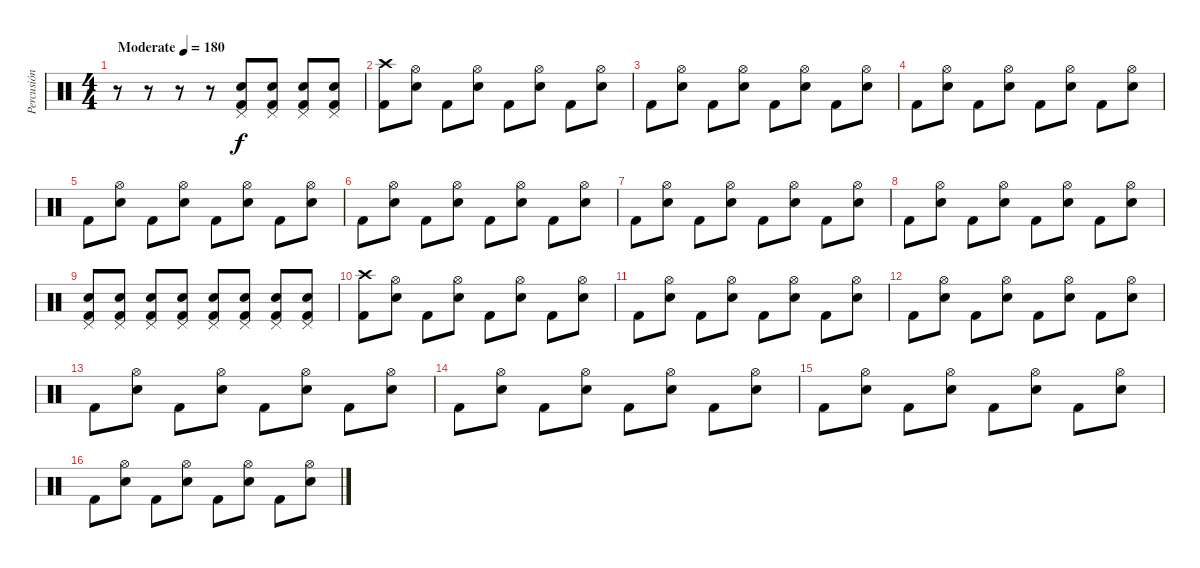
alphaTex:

\track ("Percusión" "Percusión") {instrument percussion}
\staff {score}
\articulation defaults
\ts (4 4)
\tempo (180 "Moderate")
\clef neutral
\ks c
r.8{dy f} r.8 r.8 r.8 ("Pedal Hi-Hat (hit)" "Electric Snare (hit)" "Kick (hit) 2").8 ("Pedal Hi-Hat (hit)" "Electric Snare (hit)" "Kick (hit) 2").8 ("Pedal Hi-Hat (hit)" "Electric Snare (hit)" "Kick (hit) 2").8 ("Pedal Hi-Hat (hit)" "Electric Snare (hit)" "Kick (hit) 2").8 |
("Crash high (hit)" "Kick (hit) 2").8 ("Hi-Hat (open)" "Electric Snare (hit)").8 "Kick (hit) 2".8 ("Hi-Hat (open)" "Electric Snare (hit)").8 "Kick (hit) 2".8 ("Hi-Hat (open)" "Electric Snare (hit)").8 "Kick (hit) 2".8 ("Hi-Hat (open)" "Electric Snare (hit)").8 |
"Kick (hit) 2".8 ("Hi-Hat (open)" "Electric Snare (hit)").8 "Kick (hit) 2".8 ("Hi-Hat (open)" "Electric Snare (hit)").8 "Kick (hit) 2".8 ("Hi-Hat (open)" "Electric Snare (hit)").8 "Kick (hit) 2".8 ("Hi-Hat (open)" "Electric Snare (hit)").8 |
"Kick (hit) 2".8 ("Hi-Hat (open)" "Electric Snare (hit)").8 "Kick (hit) 2".8 ("Hi-Hat (open)" "Electric Snare (hit)").8 "Kick (hit) 2".8 ("Hi-Hat (open)" "Electric Snare (hit)").8 "Kick (hit) 2".8 ("Hi-Hat (open)" "Electric Snare (hit)").8 |
"Kick (hit) 2".8 ("Hi-Hat (open)" "Electric Snare (hit)").8 "Kick (hit) 2".8 ("Hi-Hat (open)" "Electric Snare (hit)").8 "Kick (hit) 2".8 ("Hi-Hat (open)" "Electric Snare (hit)").8 "Kick (hit) 2".8 ("Hi-Hat (open)" "Electric Snare (hit)").8 |
"Kick (hit) 2".8 ("Hi-Hat (open)" "Electric Snare (hit)").8 "Kick (hit) 2".8 ("Hi-Hat (open)" "Electric Snare (hit)").8 "Kick (hit) 2".8 ("Hi-Hat (open)" "Electric Snare (hit)").8 "Kick (hit) 2".8 ("Hi-Hat (open)" "Electric Snare (hit)").8 |
"Kick (hit) 2".8 ("Hi-Hat (open)" "Electric Snare (hit)").8 "Kick (hit) 2".8 ("Hi-Hat (open)" "Electric Snare (hit)").8 "Kick (hit) 2".8 ("Hi-Hat (open)" "Electric Snare (hit)").8 "Kick (hit) 2".8 ("Hi-Hat (open)" "Electric Snare (hit)").8 |
"Kick (hit) 2".8 ("Hi-Hat (open)" "Electric Snare (hit)").8 "Kick (hit) 2".8 ("Hi-Hat (open)" "Electric Snare (hit)").8 "Kick (hit) 2".8 ("Hi-Hat (open)" "Electric Snare (hit)").8 "Kick (hit) 2".8 ("Hi-Hat (open)" "Electric Snare (hit)").8 |
("Pedal Hi-Hat (hit)" "Electric Snare (hit)" "Kick (hit) 2").8 ("Pedal Hi-Hat (hit)" "Electric Snare (hit)" "Kick (hit) 2").8 ("Pedal Hi-Hat (hit)" "Electric Snare (hit)" "Kick (hit) 2").8 ("Pedal Hi-Hat (hit)" "Electric Snare (hit)" "Kick (hit) 2").8 ("Pedal Hi-Hat (hit)" "Electric Snare (hit)" "Kick (hit) 2").8 ("Pedal Hi-Hat (hit)" "Electric Snare (hit)" "Kick (hit) 2").8 ("Pedal Hi-Hat (hit)" "Electric Snare (hit)" "Kick (hit) 2").8 ("Pedal Hi-Hat (hit)" "Electric Snare (hit)" "Kick (hit) 2").8 |
("Crash high (hit)" "Kick (hit) 2").8 ("Hi-Hat (open)" "Electric Snare (hit)").8 "Kick (hit) 2".8 ("Hi-Hat (open)" "Electric Snare (hit)").8 "Kick (hit) 2".8 ("Hi-Hat (open)" "Electric Snare (hit)").8 "Kick (hit) 2".8 ("Hi-Hat (open)" "Electric Snare (hit)").8 |
"Kick (hit) 2".8 ("Hi-Hat (open)" "Electric Snare (hit)").8 "Kick (hit) 2".8 ("Hi-Hat (open)" "Electric Snare (hit)").8 "Kick (hit) 2".8 ("Hi-Hat (open)" "Electric Snare (hit)").8 "Kick (hit) 2".8 ("Hi-Hat (open)" "Electric Snare (hit)").8 |
"Kick (hit) 2".8 ("Hi-Hat (open)" "Electric Snare (hit)").8 "Kick (hit) 2".8 ("Hi-Hat (open)" "Electric Snare (hit)").8 "Kick (hit) 2".8 ("Hi-Hat (open)" "Electric Snare (hit)").8 "Kick (hit) 2".8 ("Hi-Hat (open)" "Electric Snare (hit)").8 |
"Kick (hit) 2".8 ("Hi-Hat (open)" "Electric Snare (hit)").8 "Kick (hit) 2".8 ("Hi-Hat (open)" "Electric Snare (hit)").8 "Kick (hit) 2".8 ("Hi-Hat (open)" "Electric Snare (hit)").8 "Kick (hit) 2".8 ("Hi-Hat (open)" "Electric Snare (hit)").8 |
"Kick (hit) 2".8 ("Hi-Hat (open)" "Electric Snare (hit)").8 "Kick (hit) 2".8 ("Hi-Hat (open)" "Electric Snare (hit)").8 "Kick (hit) 2".8 ("Hi-Hat (open)" "Electric Snare (hit)").8 "Kick (hit) 2".8 ("Hi-Hat (open)" "Electric Snare (hit)").8 |
"Kick (hit) 2".8 ("Hi-Hat (open)" "Electric Snare (hit)").8 "Kick (hit) 2".8 ("Hi-Hat (open)" "Electric Snare (hit)").8 "Kick (hit) 2".8 ("Hi-Hat (open)" "Electric Snare (hit)").8 "Kick (hit) 2".8 ("Hi-Hat (open)" "Electric Snare (hit)").8 |
"Kick (hit) 2".8 ("Hi-Hat (open)" "Electric Snare (hit)").8 "Kick (hit) 2".8 ("Hi-Hat (open)" "Electric Snare (hit)").8 "Kick (hit) 2".8 ("Hi-Hat (open)" "Electric Snare (hit)").8 "Kick (hit) 2".8 ("Hi-Hat (open)" "Electric Snare (hit)").8
